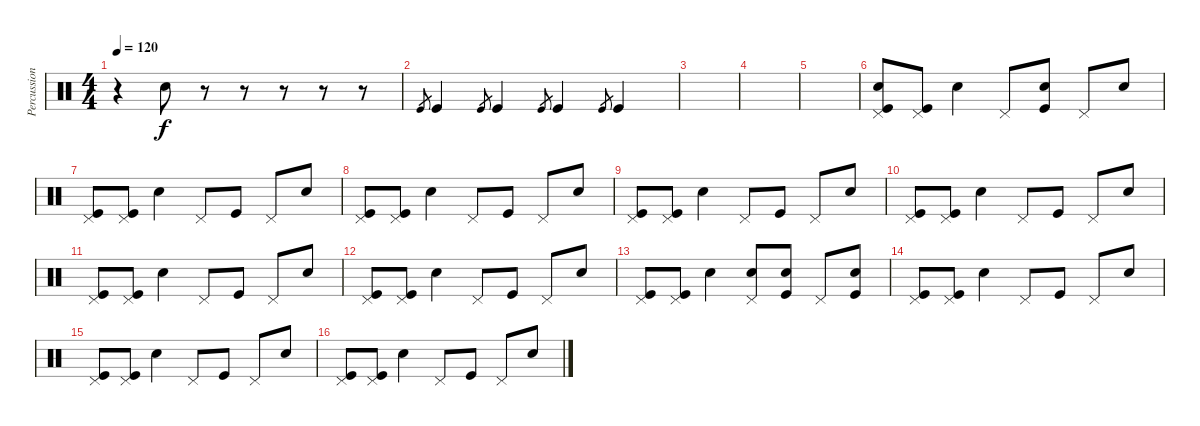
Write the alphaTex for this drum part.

\track ("Percussion" "Percussion") {instrument percussion}
\staff {score}
\articulation defaults
\ts (4 4)
\tempo 120
\clef neutral
\ks c
r.4{dy f} "Snare (hit) 2".8 r.8 r.8 r.8 r.8 r.8 |
"Kick (hit)".8{gr} "Kick (hit)".4 "Kick (hit)".8{gr} "Kick (hit)".4 "Kick (hit)".8{gr} "Kick (hit)".4 "Kick (hit)".8{gr} "Kick (hit)".4 |
|
|
|
("Snare (hit) 2" "Kick (hit)" "Pedal Hi-Hat (hit)").8 ("Kick (hit)" "Pedal Hi-Hat (hit)").8 "Snare (hit) 2".4 "Pedal Hi-Hat (hit)".8 ("Snare (hit) 2" "Kick (hit)").8 "Pedal Hi-Hat (hit)".8 "Snare (hit) 2".8 |
("Kick (hit)" "Pedal Hi-Hat (hit)").8 ("Kick (hit)" "Pedal Hi-Hat (hit)").8 "Snare (hit) 2".4 "Pedal Hi-Hat (hit)".8 "Kick (hit)".8 "Pedal Hi-Hat (hit)".8 "Snare (hit) 2".8 |
("Kick (hit)" "Pedal Hi-Hat (hit)").8 ("Kick (hit)" "Pedal Hi-Hat (hit)").8 "Snare (hit) 2".4 "Pedal Hi-Hat (hit)".8 "Kick (hit)".8 "Pedal Hi-Hat (hit)".8 "Snare (hit) 2".8 |
("Kick (hit)" "Pedal Hi-Hat (hit)").8 ("Kick (hit)" "Pedal Hi-Hat (hit)").8 "Snare (hit) 2".4 "Pedal Hi-Hat (hit)".8 "Kick (hit)".8 "Pedal Hi-Hat (hit)".8 "Snare (hit) 2".8 |
("Kick (hit)" "Pedal Hi-Hat (hit)").8 ("Kick (hit)" "Pedal Hi-Hat (hit)").8 "Snare (hit) 2".4 "Pedal Hi-Hat (hit)".8 "Kick (hit)".8 "Pedal Hi-Hat (hit)".8 "Snare (hit) 2".8 |
("Kick (hit)" "Pedal Hi-Hat (hit)").8 ("Kick (hit)" "Pedal Hi-Hat (hit)").8 "Snare (hit) 2".4 "Pedal Hi-Hat (hit)".8 "Kick (hit)".8 "Pedal Hi-Hat (hit)".8 "Snare (hit) 2".8 |
("Kick (hit)" "Pedal Hi-Hat (hit)").8 ("Kick (hit)" "Pedal Hi-Hat (hit)").8 "Snare (hit) 2".4 "Pedal Hi-Hat (hit)".8 "Kick (hit)".8 "Pedal Hi-Hat (hit)".8 "Snare (hit) 2".8 |
("Kick (hit)" "Pedal Hi-Hat (hit)").8 ("Kick (hit)" "Pedal Hi-Hat (hit)").8 "Snare (hit) 2".4 ("Snare (hit) 2" "Pedal Hi-Hat (hit)").8 ("Snare (hit) 2" "Kick (hit)").8 "Pedal Hi-Hat (hit)".8 ("Snare (hit) 2" "Kick (hit)").8 |
("Kick (hit)" "Pedal Hi-Hat (hit)").8 ("Kick (hit)" "Pedal Hi-Hat (hit)").8 "Snare (hit) 2".4 "Pedal Hi-Hat (hit)".8 "Kick (hit)".8 "Pedal Hi-Hat (hit)".8 "Snare (hit) 2".8 |
("Kick (hit)" "Pedal Hi-Hat (hit)").8 ("Kick (hit)" "Pedal Hi-Hat (hit)").8 "Snare (hit) 2".4 "Pedal Hi-Hat (hit)".8 "Kick (hit)".8 "Pedal Hi-Hat (hit)".8 "Snare (hit) 2".8 |
("Kick (hit)" "Pedal Hi-Hat (hit)").8 ("Kick (hit)" "Pedal Hi-Hat (hit)").8 "Snare (hit) 2".4 "Pedal Hi-Hat (hit)".8 "Kick (hit)".8 "Pedal Hi-Hat (hit)".8 "Snare (hit) 2".8
